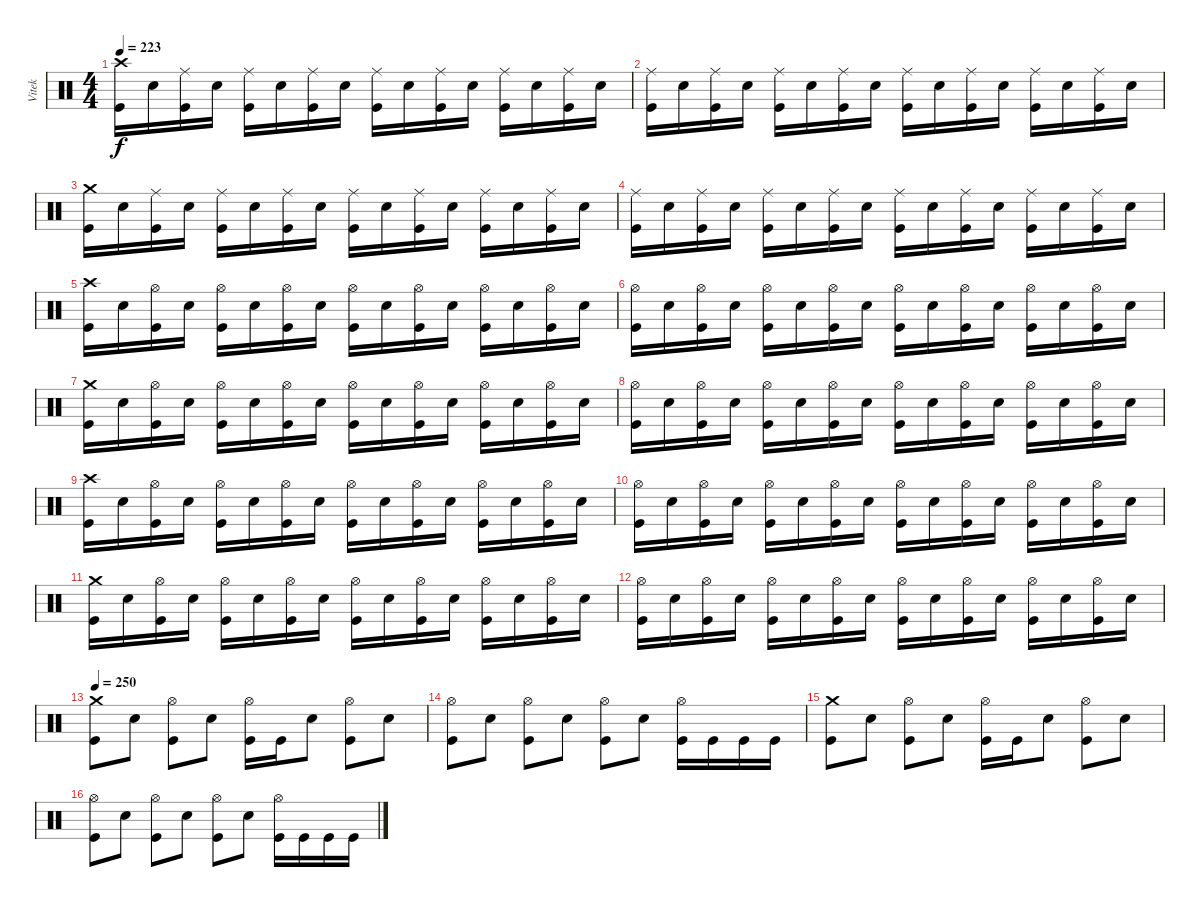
\track ("Vitek" "Vitek") {instrument percussion}
\staff {score}
\articulation defaults
\ts (4 4)
\tempo 223
\clef neutral
\ks c
("Crash high (hit)" "Kick (hit)").16{dy f} "Snare (hit) 2".16 ("Ride (middle)" "Kick (hit)").16 "Snare (hit) 2".16 ("Ride (middle)" "Kick (hit)").16 "Snare (hit) 2".16 ("Ride (middle)" "Kick (hit)").16 "Snare (hit) 2".16 ("Ride (middle)" "Kick (hit)").16 "Snare (hit) 2".16 ("Ride (middle)" "Kick (hit)").16 "Snare (hit) 2".16 ("Ride (middle)" "Kick (hit)").16 "Snare (hit) 2".16 ("Ride (middle)" "Kick (hit)").16 "Snare (hit) 2".16 |
("Ride (middle)" "Kick (hit)").16 "Snare (hit) 2".16 ("Ride (middle)" "Kick (hit)").16 "Snare (hit) 2".16 ("Ride (middle)" "Kick (hit)").16 "Snare (hit) 2".16 ("Ride (middle)" "Kick (hit)").16 "Snare (hit) 2".16 ("Ride (middle)" "Kick (hit)").16 "Snare (hit) 2".16 ("Ride (middle)" "Kick (hit)").16 "Snare (hit) 2".16 ("Ride (middle)" "Kick (hit)").16 "Snare (hit) 2".16 ("Ride (middle)" "Kick (hit)").16 "Snare (hit) 2".16 |
("Crash medium (hit)" "Kick (hit)").16 "Snare (hit) 2".16 ("Ride (middle)" "Kick (hit)").16 "Snare (hit) 2".16 ("Ride (middle)" "Kick (hit)").16 "Snare (hit) 2".16 ("Ride (middle)" "Kick (hit)").16 "Snare (hit) 2".16 ("Ride (middle)" "Kick (hit)").16 "Snare (hit) 2".16 ("Ride (middle)" "Kick (hit)").16 "Snare (hit) 2".16 ("Ride (middle)" "Kick (hit)").16 "Snare (hit) 2".16 ("Ride (middle)" "Kick (hit)").16 "Snare (hit) 2".16 |
("Ride (middle)" "Kick (hit)").16 "Snare (hit) 2".16 ("Ride (middle)" "Kick (hit)").16 "Snare (hit) 2".16 ("Ride (middle)" "Kick (hit)").16 "Snare (hit) 2".16 ("Ride (middle)" "Kick (hit)").16 "Snare (hit) 2".16 ("Ride (middle)" "Kick (hit)").16 "Snare (hit) 2".16 ("Ride (middle)" "Kick (hit)").16 "Snare (hit) 2".16 ("Ride (middle)" "Kick (hit)").16 "Snare (hit) 2".16 ("Ride (middle)" "Kick (hit)").16 "Snare (hit) 2".16 |
("Crash high (hit)" "Kick (hit)").16 "Snare (hit) 2".16 ("Hi-Hat (open)" "Kick (hit)").16 "Snare (hit) 2".16 ("Hi-Hat (open)" "Kick (hit)").16 "Snare (hit) 2".16 ("Hi-Hat (open)" "Kick (hit)").16 "Snare (hit) 2".16 ("Hi-Hat (open)" "Kick (hit)").16 "Snare (hit) 2".16 ("Hi-Hat (open)" "Kick (hit)").16 "Snare (hit) 2".16 ("Hi-Hat (open)" "Kick (hit)").16 "Snare (hit) 2".16 ("Hi-Hat (open)" "Kick (hit)").16 "Snare (hit) 2".16 |
("Hi-Hat (open)" "Kick (hit)").16 "Snare (hit) 2".16 ("Hi-Hat (open)" "Kick (hit)").16 "Snare (hit) 2".16 ("Hi-Hat (open)" "Kick (hit)").16 "Snare (hit) 2".16 ("Hi-Hat (open)" "Kick (hit)").16 "Snare (hit) 2".16 ("Hi-Hat (open)" "Kick (hit)").16 "Snare (hit) 2".16 ("Hi-Hat (open)" "Kick (hit)").16 "Snare (hit) 2".16 ("Hi-Hat (open)" "Kick (hit)").16 "Snare (hit) 2".16 ("Hi-Hat (open)" "Kick (hit)").16 "Snare (hit) 2".16 |
("Crash medium (hit)" "Kick (hit)").16 "Snare (hit) 2".16 ("Hi-Hat (open)" "Kick (hit)").16 "Snare (hit) 2".16 ("Hi-Hat (open)" "Kick (hit)").16 "Snare (hit) 2".16 ("Hi-Hat (open)" "Kick (hit)").16 "Snare (hit) 2".16 ("Hi-Hat (open)" "Kick (hit)").16 "Snare (hit) 2".16 ("Hi-Hat (open)" "Kick (hit)").16 "Snare (hit) 2".16 ("Hi-Hat (open)" "Kick (hit)").16 "Snare (hit) 2".16 ("Hi-Hat (open)" "Kick (hit)").16 "Snare (hit) 2".16 |
("Hi-Hat (open)" "Kick (hit)").16 "Snare (hit) 2".16 ("Hi-Hat (open)" "Kick (hit)").16 "Snare (hit) 2".16 ("Hi-Hat (open)" "Kick (hit)").16 "Snare (hit) 2".16 ("Hi-Hat (open)" "Kick (hit)").16 "Snare (hit) 2".16 ("Hi-Hat (open)" "Kick (hit)").16 "Snare (hit) 2".16 ("Hi-Hat (open)" "Kick (hit)").16 "Snare (hit) 2".16 ("Hi-Hat (open)" "Kick (hit)").16 "Snare (hit) 2".16 ("Hi-Hat (open)" "Kick (hit)").16 "Snare (hit) 2".16 |
("Crash high (hit)" "Kick (hit)").16 "Snare (hit) 2".16 ("Hi-Hat (open)" "Kick (hit)").16 "Snare (hit) 2".16 ("Hi-Hat (open)" "Kick (hit)").16 "Snare (hit) 2".16 ("Hi-Hat (open)" "Kick (hit)").16 "Snare (hit) 2".16 ("Hi-Hat (open)" "Kick (hit)").16 "Snare (hit) 2".16 ("Hi-Hat (open)" "Kick (hit)").16 "Snare (hit) 2".16 ("Hi-Hat (open)" "Kick (hit)").16 "Snare (hit) 2".16 ("Hi-Hat (open)" "Kick (hit)").16 "Snare (hit) 2".16 |
("Hi-Hat (open)" "Kick (hit)").16 "Snare (hit) 2".16 ("Hi-Hat (open)" "Kick (hit)").16 "Snare (hit) 2".16 ("Hi-Hat (open)" "Kick (hit)").16 "Snare (hit) 2".16 ("Hi-Hat (open)" "Kick (hit)").16 "Snare (hit) 2".16 ("Hi-Hat (open)" "Kick (hit)").16 "Snare (hit) 2".16 ("Hi-Hat (open)" "Kick (hit)").16 "Snare (hit) 2".16 ("Hi-Hat (open)" "Kick (hit)").16 "Snare (hit) 2".16 ("Hi-Hat (open)" "Kick (hit)").16 "Snare (hit) 2".16 |
("Crash medium (hit)" "Kick (hit)").16 "Snare (hit) 2".16 ("Hi-Hat (open)" "Kick (hit)").16 "Snare (hit) 2".16 ("Hi-Hat (open)" "Kick (hit)").16 "Snare (hit) 2".16 ("Hi-Hat (open)" "Kick (hit)").16 "Snare (hit) 2".16 ("Hi-Hat (open)" "Kick (hit)").16 "Snare (hit) 2".16 ("Hi-Hat (open)" "Kick (hit)").16 "Snare (hit) 2".16 ("Hi-Hat (open)" "Kick (hit)").16 "Snare (hit) 2".16 ("Hi-Hat (open)" "Kick (hit)").16 "Snare (hit) 2".16 |
("Hi-Hat (open)" "Kick (hit)").16 "Snare (hit) 2".16 ("Hi-Hat (open)" "Kick (hit)").16 "Snare (hit) 2".16 ("Hi-Hat (open)" "Kick (hit)").16 "Snare (hit) 2".16 ("Hi-Hat (open)" "Kick (hit)").16 "Snare (hit) 2".16 ("Hi-Hat (open)" "Kick (hit)").16 "Snare (hit) 2".16 ("Hi-Hat (open)" "Kick (hit)").16 "Snare (hit) 2".16 ("Hi-Hat (open)" "Kick (hit)").16 "Snare (hit) 2".16 ("Hi-Hat (open)" "Kick (hit)").16 "Snare (hit) 2".16 |
\tempo 250
("Crash medium (hit)" "Kick (hit)").8 "Snare (hit) 2".8 ("Hi-Hat (open)" "Kick (hit)").8 "Snare (hit) 2".8 ("Hi-Hat (open)" "Kick (hit)").16 "Kick (hit)".16 "Snare (hit) 2".8 ("Hi-Hat (open)" "Kick (hit)").8 "Snare (hit) 2".8 |
("Hi-Hat (open)" "Kick (hit)").8 "Snare (hit) 2".8 ("Hi-Hat (open)" "Kick (hit)").8 "Snare (hit) 2".8 ("Hi-Hat (open)" "Kick (hit)").8 "Snare (hit) 2".8 ("Hi-Hat (open)" "Kick (hit)").16 "Kick (hit)".16 "Kick (hit)".16 "Kick (hit)".16 |
("Crash medium (hit)" "Kick (hit)").8 "Snare (hit) 2".8 ("Hi-Hat (open)" "Kick (hit)").8 "Snare (hit) 2".8 ("Hi-Hat (open)" "Kick (hit)").16 "Kick (hit)".16 "Snare (hit) 2".8 ("Hi-Hat (open)" "Kick (hit)").8 "Snare (hit) 2".8 |
("Hi-Hat (open)" "Kick (hit)").8 "Snare (hit) 2".8 ("Hi-Hat (open)" "Kick (hit)").8 "Snare (hit) 2".8 ("Hi-Hat (open)" "Kick (hit)").8 "Snare (hit) 2".8 ("Hi-Hat (open)" "Kick (hit)").16 "Kick (hit)".16 "Kick (hit)".16 "Kick (hit)".16
